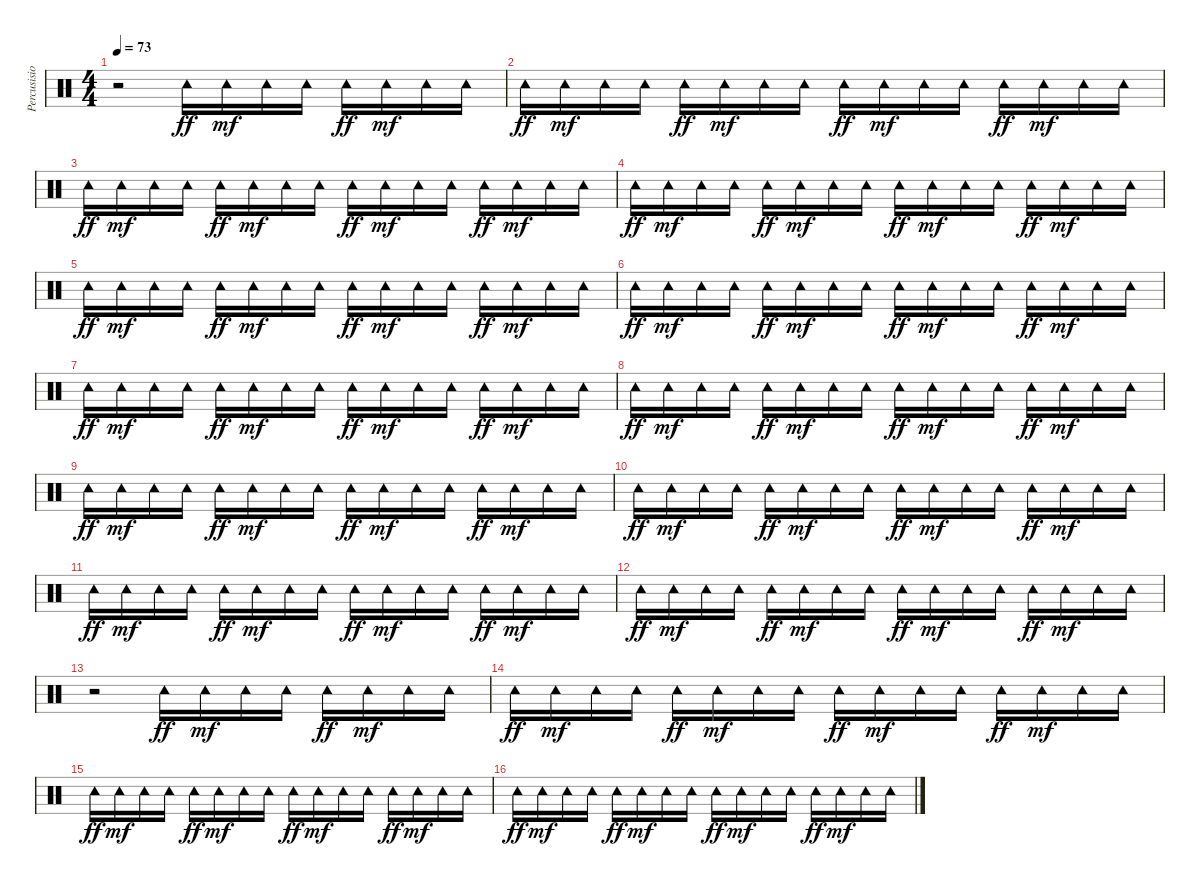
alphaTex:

\track ("Percusision" "Percusisio") {instrument percussion}
\staff {score}
\articulation defaults
\ts (4 4)
\tempo 73
\clef neutral
\ks c
r.2{dy pp} "Tambourine (hit)".16{dy ff} "Tambourine (hit)".16{dy mf} "Tambourine (hit)".16 "Tambourine (hit)".16 "Tambourine (hit)".16{dy ff} "Tambourine (hit)".16{dy mf} "Tambourine (hit)".16 "Tambourine (hit)".16 |
"Tambourine (hit)".16{dy ff} "Tambourine (hit)".16{dy mf} "Tambourine (hit)".16 "Tambourine (hit)".16 "Tambourine (hit)".16{dy ff} "Tambourine (hit)".16{dy mf} "Tambourine (hit)".16 "Tambourine (hit)".16 "Tambourine (hit)".16{dy ff} "Tambourine (hit)".16{dy mf} "Tambourine (hit)".16 "Tambourine (hit)".16 "Tambourine (hit)".16{dy ff} "Tambourine (hit)".16{dy mf} "Tambourine (hit)".16 "Tambourine (hit)".16 |
"Tambourine (hit)".16{dy ff} "Tambourine (hit)".16{dy mf} "Tambourine (hit)".16 "Tambourine (hit)".16 "Tambourine (hit)".16{dy ff} "Tambourine (hit)".16{dy mf} "Tambourine (hit)".16 "Tambourine (hit)".16 "Tambourine (hit)".16{dy ff} "Tambourine (hit)".16{dy mf} "Tambourine (hit)".16 "Tambourine (hit)".16 "Tambourine (hit)".16{dy ff} "Tambourine (hit)".16{dy mf} "Tambourine (hit)".16 "Tambourine (hit)".16 |
"Tambourine (hit)".16{dy ff} "Tambourine (hit)".16{dy mf} "Tambourine (hit)".16 "Tambourine (hit)".16 "Tambourine (hit)".16{dy ff} "Tambourine (hit)".16{dy mf} "Tambourine (hit)".16 "Tambourine (hit)".16 "Tambourine (hit)".16{dy ff} "Tambourine (hit)".16{dy mf} "Tambourine (hit)".16 "Tambourine (hit)".16 "Tambourine (hit)".16{dy ff} "Tambourine (hit)".16{dy mf} "Tambourine (hit)".16 "Tambourine (hit)".16 |
"Tambourine (hit)".16{dy ff} "Tambourine (hit)".16{dy mf} "Tambourine (hit)".16 "Tambourine (hit)".16 "Tambourine (hit)".16{dy ff} "Tambourine (hit)".16{dy mf} "Tambourine (hit)".16 "Tambourine (hit)".16 "Tambourine (hit)".16{dy ff} "Tambourine (hit)".16{dy mf} "Tambourine (hit)".16 "Tambourine (hit)".16 "Tambourine (hit)".16{dy ff} "Tambourine (hit)".16{dy mf} "Tambourine (hit)".16 "Tambourine (hit)".16 |
"Tambourine (hit)".16{dy ff} "Tambourine (hit)".16{dy mf} "Tambourine (hit)".16 "Tambourine (hit)".16 "Tambourine (hit)".16{dy ff} "Tambourine (hit)".16{dy mf} "Tambourine (hit)".16 "Tambourine (hit)".16 "Tambourine (hit)".16{dy ff} "Tambourine (hit)".16{dy mf} "Tambourine (hit)".16 "Tambourine (hit)".16 "Tambourine (hit)".16{dy ff} "Tambourine (hit)".16{dy mf} "Tambourine (hit)".16 "Tambourine (hit)".16 |
"Tambourine (hit)".16{dy ff} "Tambourine (hit)".16{dy mf} "Tambourine (hit)".16 "Tambourine (hit)".16 "Tambourine (hit)".16{dy ff} "Tambourine (hit)".16{dy mf} "Tambourine (hit)".16 "Tambourine (hit)".16 "Tambourine (hit)".16{dy ff} "Tambourine (hit)".16{dy mf} "Tambourine (hit)".16 "Tambourine (hit)".16 "Tambourine (hit)".16{dy ff} "Tambourine (hit)".16{dy mf} "Tambourine (hit)".16 "Tambourine (hit)".16 |
"Tambourine (hit)".16{dy ff} "Tambourine (hit)".16{dy mf} "Tambourine (hit)".16 "Tambourine (hit)".16 "Tambourine (hit)".16{dy ff} "Tambourine (hit)".16{dy mf} "Tambourine (hit)".16 "Tambourine (hit)".16 "Tambourine (hit)".16{dy ff} "Tambourine (hit)".16{dy mf} "Tambourine (hit)".16 "Tambourine (hit)".16 "Tambourine (hit)".16{dy ff} "Tambourine (hit)".16{dy mf} "Tambourine (hit)".16 "Tambourine (hit)".16 |
"Tambourine (hit)".16{dy ff} "Tambourine (hit)".16{dy mf} "Tambourine (hit)".16 "Tambourine (hit)".16 "Tambourine (hit)".16{dy ff} "Tambourine (hit)".16{dy mf} "Tambourine (hit)".16 "Tambourine (hit)".16 "Tambourine (hit)".16{dy ff} "Tambourine (hit)".16{dy mf} "Tambourine (hit)".16 "Tambourine (hit)".16 "Tambourine (hit)".16{dy ff} "Tambourine (hit)".16{dy mf} "Tambourine (hit)".16 "Tambourine (hit)".16 |
"Tambourine (hit)".16{dy ff} "Tambourine (hit)".16{dy mf} "Tambourine (hit)".16 "Tambourine (hit)".16 "Tambourine (hit)".16{dy ff} "Tambourine (hit)".16{dy mf} "Tambourine (hit)".16 "Tambourine (hit)".16 "Tambourine (hit)".16{dy ff} "Tambourine (hit)".16{dy mf} "Tambourine (hit)".16 "Tambourine (hit)".16 "Tambourine (hit)".16{dy ff} "Tambourine (hit)".16{dy mf} "Tambourine (hit)".16 "Tambourine (hit)".16 |
"Tambourine (hit)".16{dy ff} "Tambourine (hit)".16{dy mf} "Tambourine (hit)".16 "Tambourine (hit)".16 "Tambourine (hit)".16{dy ff} "Tambourine (hit)".16{dy mf} "Tambourine (hit)".16 "Tambourine (hit)".16 "Tambourine (hit)".16{dy ff} "Tambourine (hit)".16{dy mf} "Tambourine (hit)".16 "Tambourine (hit)".16 "Tambourine (hit)".16{dy ff} "Tambourine (hit)".16{dy mf} "Tambourine (hit)".16 "Tambourine (hit)".16 |
"Tambourine (hit)".16{dy ff} "Tambourine (hit)".16{dy mf} "Tambourine (hit)".16 "Tambourine (hit)".16 "Tambourine (hit)".16{dy ff} "Tambourine (hit)".16{dy mf} "Tambourine (hit)".16 "Tambourine (hit)".16 "Tambourine (hit)".16{dy ff} "Tambourine (hit)".16{dy mf} "Tambourine (hit)".16 "Tambourine (hit)".16 "Tambourine (hit)".16{dy ff} "Tambourine (hit)".16{dy mf} "Tambourine (hit)".16 "Tambourine (hit)".16 |
r.2 "Tambourine (hit)".16{dy ff} "Tambourine (hit)".16{dy mf} "Tambourine (hit)".16 "Tambourine (hit)".16 "Tambourine (hit)".16{dy ff} "Tambourine (hit)".16{dy mf} "Tambourine (hit)".16 "Tambourine (hit)".16 |
"Tambourine (hit)".16{dy ff} "Tambourine (hit)".16{dy mf} "Tambourine (hit)".16 "Tambourine (hit)".16 "Tambourine (hit)".16{dy ff} "Tambourine (hit)".16{dy mf} "Tambourine (hit)".16 "Tambourine (hit)".16 "Tambourine (hit)".16{dy ff} "Tambourine (hit)".16{dy mf} "Tambourine (hit)".16 "Tambourine (hit)".16 "Tambourine (hit)".16{dy ff} "Tambourine (hit)".16{dy mf} "Tambourine (hit)".16 "Tambourine (hit)".16 |
"Tambourine (hit)".16{dy ff} "Tambourine (hit)".16{dy mf} "Tambourine (hit)".16 "Tambourine (hit)".16 "Tambourine (hit)".16{dy ff} "Tambourine (hit)".16{dy mf} "Tambourine (hit)".16 "Tambourine (hit)".16 "Tambourine (hit)".16{dy ff} "Tambourine (hit)".16{dy mf} "Tambourine (hit)".16 "Tambourine (hit)".16 "Tambourine (hit)".16{dy ff} "Tambourine (hit)".16{dy mf} "Tambourine (hit)".16 "Tambourine (hit)".16 |
"Tambourine (hit)".16{dy ff} "Tambourine (hit)".16{dy mf} "Tambourine (hit)".16 "Tambourine (hit)".16 "Tambourine (hit)".16{dy ff} "Tambourine (hit)".16{dy mf} "Tambourine (hit)".16 "Tambourine (hit)".16 "Tambourine (hit)".16{dy ff} "Tambourine (hit)".16{dy mf} "Tambourine (hit)".16 "Tambourine (hit)".16 "Tambourine (hit)".16{dy ff} "Tambourine (hit)".16{dy mf} "Tambourine (hit)".16 "Tambourine (hit)".16
